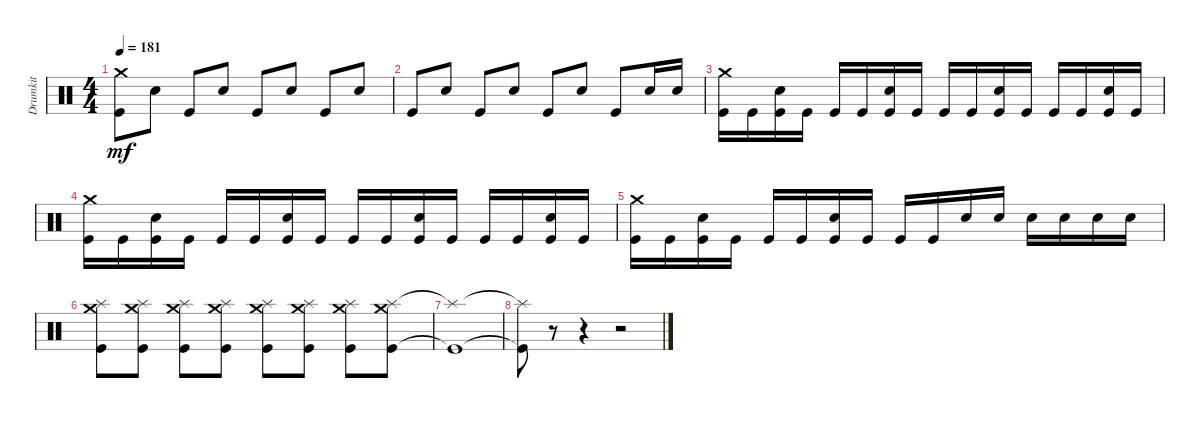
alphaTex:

\track ("Drumkit" "Drumkit") {instrument percussion}
\staff {score}
\articulation defaults
\ts (4 4)
\tempo 181
\clef neutral
\ks c
("Kick (hit)" "Crash medium (hit)").8{dy mf} "Snare (hit) 2".8 "Kick (hit)".8 "Snare (hit) 2".8 "Kick (hit)".8 "Snare (hit) 2".8 "Kick (hit)".8 "Snare (hit) 2".8 |
"Kick (hit)".8 "Snare (hit) 2".8 "Kick (hit)".8 "Snare (hit) 2".8 "Kick (hit)".8 "Snare (hit) 2".8 "Kick (hit)".8 "Snare (hit) 2".16 "Snare (hit) 2".16 |
("Kick (hit)" "Crash medium (hit)").16 "Kick (hit)".16 ("Kick (hit)" "Snare (hit) 2").16 "Kick (hit)".16 "Kick (hit)".16 "Kick (hit)".16 ("Kick (hit)" "Snare (hit) 2").16 "Kick (hit)".16 "Kick (hit)".16 "Kick (hit)".16 ("Kick (hit)" "Snare (hit) 2").16 "Kick (hit)".16 "Kick (hit)".16 "Kick (hit)".16 ("Kick (hit)" "Snare (hit) 2").16 "Kick (hit)".16 |
("Kick (hit)" "Crash medium (hit)").16 "Kick (hit)".16 ("Kick (hit)" "Snare (hit) 2").16 "Kick (hit)".16 "Kick (hit)".16 "Kick (hit)".16 ("Kick (hit)" "Snare (hit) 2").16 "Kick (hit)".16 "Kick (hit)".16 "Kick (hit)".16 ("Kick (hit)" "Snare (hit) 2").16 "Kick (hit)".16 "Kick (hit)".16 "Kick (hit)".16 ("Kick (hit)" "Snare (hit) 2").16 "Kick (hit)".16 |
("Kick (hit)" "Crash medium (hit)").16 "Kick (hit)".16 ("Kick (hit)" "Snare (hit) 2").16 "Kick (hit)".16 "Kick (hit)".16 "Kick (hit)".16 ("Kick (hit)" "Snare (hit) 2").16 "Kick (hit)".16 "Kick (hit)".16 "Kick (hit)".16 "Snare (hit) 2".16 "Snare (hit) 2".16 "Snare (hit) 2".16 "Snare (hit) 2".16 "Snare (hit) 2".16 "Snare (hit) 2".16 |
("Kick (hit)" "Crash medium (hit)" "Splash (hit)").8 ("Kick (hit)" "Splash (hit)" "Crash medium (hit)").8 ("Kick (hit)" "Splash (hit)" "Crash medium (hit)").8 ("Kick (hit)" "Splash (hit)" "Crash medium (hit)").8 ("Kick (hit)" "Splash (hit)" "Crash medium (hit)").8 ("Kick (hit)" "Splash (hit)" "Crash medium (hit)").8 ("Kick (hit)" "Splash (hit)" "Crash medium (hit)").8 ("Kick (hit)" "Splash (hit)" "Crash medium (hit)").8 |
("Kick (hit)"{t} "Splash (hit)"{t}).1 |
("Kick (hit)"{t} "Splash (hit)"{t}).8 r.8 r.4 r.2
